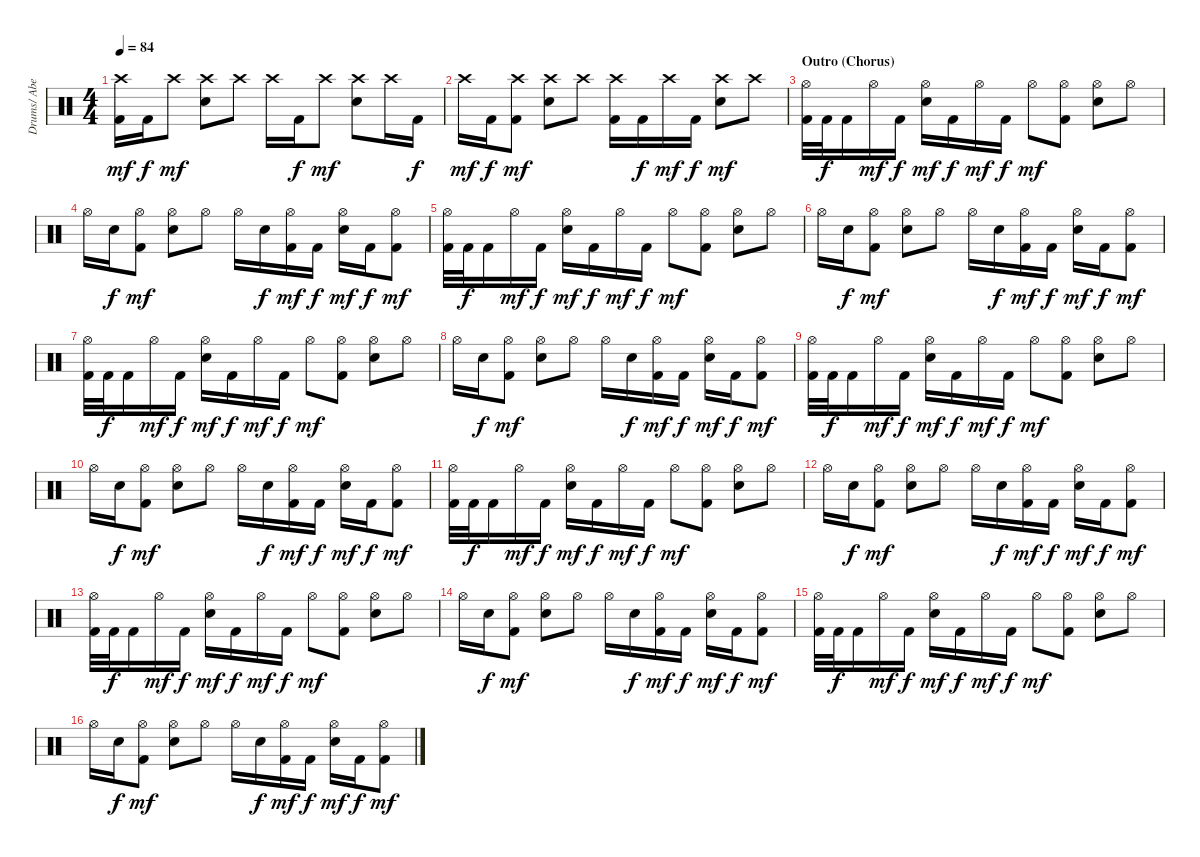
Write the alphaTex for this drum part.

\track ("Drums/ Abe Cunningham" "Drums/ Abe") {instrument percussion}
\staff {score}
\articulation defaults
\ts (4 4)
\tempo 84
\clef neutral
\ks c
("Crash high (hit)" "Kick (hit) 2").16{dy mf} "Kick (hit) 2".16{dy f} "Crash high (hit)".8{dy mf} ("Crash high (hit)" "Electric Snare (hit)").8 "Crash high (hit)".8 "Crash high (hit)".16 "Kick (hit) 2".16{dy f} "Crash high (hit)".8{dy mf} ("Crash high (hit)" "Electric Snare (hit)").8 "Crash high (hit)".16 "Kick (hit) 2".16{dy f} |
"Crash high (hit)".16{dy mf} "Kick (hit) 2".16{dy f} ("Crash high (hit)" "Kick (hit) 2").8{dy mf} ("Crash high (hit)" "Electric Snare (hit)").8 "Crash high (hit)".8 ("Crash high (hit)" "Kick (hit) 2").16 "Kick (hit) 2".16{dy f} "Crash high (hit)".16{dy mf} "Kick (hit) 2".16{dy f} ("Crash high (hit)" "Electric Snare (hit)").8{dy mf} "Crash high (hit)".8 |
\section ("" "Outro (Chorus)")
("Hi-Hat (open)" "Kick (hit) 2").32 "Kick (hit) 2".32{dy f} "Kick (hit) 2".16 "Hi-Hat (open)".16{dy mf} "Kick (hit) 2".16{dy f} ("Hi-Hat (open)" "Electric Snare (hit)").16{dy mf} "Kick (hit) 2".16{dy f} "Hi-Hat (open)".16{dy mf} "Kick (hit) 2".16{dy f} "Hi-Hat (open)".8{dy mf} ("Hi-Hat (open)" "Kick (hit) 2").8 ("Hi-Hat (open)" "Electric Snare (hit)").8 "Hi-Hat (open)".8 |
"Hi-Hat (open)".16 "Electric Snare (hit)".16{dy f} ("Hi-Hat (open)" "Kick (hit) 2").8{dy mf} ("Hi-Hat (open)" "Electric Snare (hit)").8 "Hi-Hat (open)".8 "Hi-Hat (open)".16 "Electric Snare (hit)".16{dy f} ("Hi-Hat (open)" "Kick (hit) 2").16{dy mf} "Kick (hit) 2".16{dy f} ("Hi-Hat (open)" "Electric Snare (hit)").16{dy mf} "Kick (hit) 2".16{dy f} ("Hi-Hat (open)" "Kick (hit) 2").8{dy mf} |
("Hi-Hat (open)" "Kick (hit) 2").32 "Kick (hit) 2".32{dy f} "Kick (hit) 2".16 "Hi-Hat (open)".16{dy mf} "Kick (hit) 2".16{dy f} ("Hi-Hat (open)" "Electric Snare (hit)").16{dy mf} "Kick (hit) 2".16{dy f} "Hi-Hat (open)".16{dy mf} "Kick (hit) 2".16{dy f} "Hi-Hat (open)".8{dy mf} ("Hi-Hat (open)" "Kick (hit) 2").8 ("Hi-Hat (open)" "Electric Snare (hit)").8 "Hi-Hat (open)".8 |
"Hi-Hat (open)".16 "Electric Snare (hit)".16{dy f} ("Hi-Hat (open)" "Kick (hit) 2").8{dy mf} ("Hi-Hat (open)" "Electric Snare (hit)").8 "Hi-Hat (open)".8 "Hi-Hat (open)".16 "Electric Snare (hit)".16{dy f} ("Hi-Hat (open)" "Kick (hit) 2").16{dy mf} "Kick (hit) 2".16{dy f} ("Hi-Hat (open)" "Electric Snare (hit)").16{dy mf} "Kick (hit) 2".16{dy f} ("Hi-Hat (open)" "Kick (hit) 2").8{dy mf} |
("Hi-Hat (open)" "Kick (hit) 2").32 "Kick (hit) 2".32{dy f} "Kick (hit) 2".16 "Hi-Hat (open)".16{dy mf} "Kick (hit) 2".16{dy f} ("Hi-Hat (open)" "Electric Snare (hit)").16{dy mf} "Kick (hit) 2".16{dy f} "Hi-Hat (open)".16{dy mf} "Kick (hit) 2".16{dy f} "Hi-Hat (open)".8{dy mf} ("Hi-Hat (open)" "Kick (hit) 2").8 ("Hi-Hat (open)" "Electric Snare (hit)").8 "Hi-Hat (open)".8 |
"Hi-Hat (open)".16 "Electric Snare (hit)".16{dy f} ("Hi-Hat (open)" "Kick (hit) 2").8{dy mf} ("Hi-Hat (open)" "Electric Snare (hit)").8 "Hi-Hat (open)".8 "Hi-Hat (open)".16 "Electric Snare (hit)".16{dy f} ("Hi-Hat (open)" "Kick (hit) 2").16{dy mf} "Kick (hit) 2".16{dy f} ("Hi-Hat (open)" "Electric Snare (hit)").16{dy mf} "Kick (hit) 2".16{dy f} ("Hi-Hat (open)" "Kick (hit) 2").8{dy mf} |
("Hi-Hat (open)" "Kick (hit) 2").32 "Kick (hit) 2".32{dy f} "Kick (hit) 2".16 "Hi-Hat (open)".16{dy mf} "Kick (hit) 2".16{dy f} ("Hi-Hat (open)" "Electric Snare (hit)").16{dy mf} "Kick (hit) 2".16{dy f} "Hi-Hat (open)".16{dy mf} "Kick (hit) 2".16{dy f} "Hi-Hat (open)".8{dy mf} ("Hi-Hat (open)" "Kick (hit) 2").8 ("Hi-Hat (open)" "Electric Snare (hit)").8 "Hi-Hat (open)".8 |
"Hi-Hat (open)".16 "Electric Snare (hit)".16{dy f} ("Hi-Hat (open)" "Kick (hit) 2").8{dy mf} ("Hi-Hat (open)" "Electric Snare (hit)").8 "Hi-Hat (open)".8 "Hi-Hat (open)".16 "Electric Snare (hit)".16{dy f} ("Hi-Hat (open)" "Kick (hit) 2").16{dy mf} "Kick (hit) 2".16{dy f} ("Hi-Hat (open)" "Electric Snare (hit)").16{dy mf} "Kick (hit) 2".16{dy f} ("Hi-Hat (open)" "Kick (hit) 2").8{dy mf} |
("Hi-Hat (open)" "Kick (hit) 2").32 "Kick (hit) 2".32{dy f} "Kick (hit) 2".16 "Hi-Hat (open)".16{dy mf} "Kick (hit) 2".16{dy f} ("Hi-Hat (open)" "Electric Snare (hit)").16{dy mf} "Kick (hit) 2".16{dy f} "Hi-Hat (open)".16{dy mf} "Kick (hit) 2".16{dy f} "Hi-Hat (open)".8{dy mf} ("Hi-Hat (open)" "Kick (hit) 2").8 ("Hi-Hat (open)" "Electric Snare (hit)").8 "Hi-Hat (open)".8 |
"Hi-Hat (open)".16 "Electric Snare (hit)".16{dy f} ("Hi-Hat (open)" "Kick (hit) 2").8{dy mf} ("Hi-Hat (open)" "Electric Snare (hit)").8 "Hi-Hat (open)".8 "Hi-Hat (open)".16 "Electric Snare (hit)".16{dy f} ("Hi-Hat (open)" "Kick (hit) 2").16{dy mf} "Kick (hit) 2".16{dy f} ("Hi-Hat (open)" "Electric Snare (hit)").16{dy mf} "Kick (hit) 2".16{dy f} ("Hi-Hat (open)" "Kick (hit) 2").8{dy mf} |
("Hi-Hat (open)" "Kick (hit) 2").32 "Kick (hit) 2".32{dy f} "Kick (hit) 2".16 "Hi-Hat (open)".16{dy mf} "Kick (hit) 2".16{dy f} ("Hi-Hat (open)" "Electric Snare (hit)").16{dy mf} "Kick (hit) 2".16{dy f} "Hi-Hat (open)".16{dy mf} "Kick (hit) 2".16{dy f} "Hi-Hat (open)".8{dy mf} ("Hi-Hat (open)" "Kick (hit) 2").8 ("Hi-Hat (open)" "Electric Snare (hit)").8 "Hi-Hat (open)".8 |
"Hi-Hat (open)".16 "Electric Snare (hit)".16{dy f} ("Hi-Hat (open)" "Kick (hit) 2").8{dy mf} ("Hi-Hat (open)" "Electric Snare (hit)").8 "Hi-Hat (open)".8 "Hi-Hat (open)".16 "Electric Snare (hit)".16{dy f} ("Hi-Hat (open)" "Kick (hit) 2").16{dy mf} "Kick (hit) 2".16{dy f} ("Hi-Hat (open)" "Electric Snare (hit)").16{dy mf} "Kick (hit) 2".16{dy f} ("Hi-Hat (open)" "Kick (hit) 2").8{dy mf} |
("Hi-Hat (open)" "Kick (hit) 2").32{volume 13} "Kick (hit) 2".32{dy f} "Kick (hit) 2".16 "Hi-Hat (open)".16{dy mf} "Kick (hit) 2".16{dy f} ("Hi-Hat (open)" "Electric Snare (hit)").16{dy mf} "Kick (hit) 2".16{dy f} "Hi-Hat (open)".16{dy mf} "Kick (hit) 2".16{dy f} "Hi-Hat (open)".8{dy mf} ("Hi-Hat (open)" "Kick (hit) 2").8 ("Hi-Hat (open)" "Electric Snare (hit)").8 "Hi-Hat (open)".8 |
"Hi-Hat (open)".16 "Electric Snare (hit)".16{dy f} ("Hi-Hat (open)" "Kick (hit) 2").8{dy mf} ("Hi-Hat (open)" "Electric Snare (hit)").8 "Hi-Hat (open)".8 "Hi-Hat (open)".16 "Electric Snare (hit)".16{dy f} ("Hi-Hat (open)" "Kick (hit) 2").16{dy mf} "Kick (hit) 2".16{dy f} ("Hi-Hat (open)" "Electric Snare (hit)").16{dy mf} "Kick (hit) 2".16{dy f} ("Hi-Hat (open)" "Kick (hit) 2").8{dy mf}
